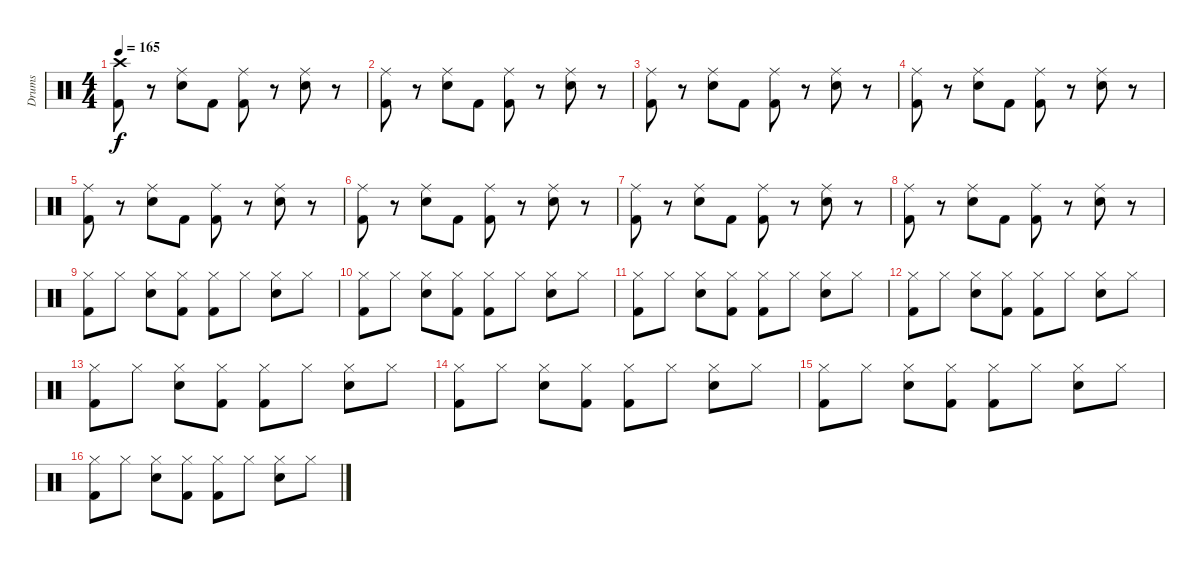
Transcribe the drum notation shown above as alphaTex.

\track ("Drums" "Drums") {instrument percussion}
\staff {score}
\articulation defaults
\ts (4 4)
\tempo 165
\clef neutral
\ks c
("Kick (hit) 2" "Crash high (hit)").8{dy f} r.8 ("Electric Snare (hit)" "Ride (middle)").8 "Kick (hit) 2".8 ("Kick (hit) 2" "Ride (middle)").8 r.8 ("Electric Snare (hit)" "Ride (middle)").8 r.8 |
("Kick (hit) 2" "Ride (middle)").8 r.8 ("Electric Snare (hit)" "Ride (middle)").8 "Kick (hit) 2".8 ("Ride (middle)" "Kick (hit) 2").8 r.8 ("Electric Snare (hit)" "Ride (middle)").8 r.8 |
("Kick (hit) 2" "Ride (middle)").8 r.8 ("Electric Snare (hit)" "Ride (middle)").8 "Kick (hit) 2".8 ("Ride (middle)" "Kick (hit) 2").8 r.8 ("Electric Snare (hit)" "Ride (middle)").8 r.8 |
("Kick (hit) 2" "Ride (middle)").8 r.8 ("Electric Snare (hit)" "Ride (middle)").8 "Kick (hit) 2".8 ("Ride (middle)" "Kick (hit) 2").8 r.8 ("Electric Snare (hit)" "Ride (middle)").8 r.8 |
("Kick (hit) 2" "Ride (middle)").8 r.8 ("Electric Snare (hit)" "Ride (middle)").8 "Kick (hit) 2".8 ("Ride (middle)" "Kick (hit) 2").8 r.8 ("Electric Snare (hit)" "Ride (middle)").8 r.8 |
("Kick (hit) 2" "Ride (middle)").8 r.8 ("Electric Snare (hit)" "Ride (middle)").8 "Kick (hit) 2".8 ("Ride (middle)" "Kick (hit) 2").8 r.8 ("Electric Snare (hit)" "Ride (middle)").8 r.8 |
("Kick (hit) 2" "Ride (middle)").8 r.8 ("Electric Snare (hit)" "Ride (middle)").8 "Kick (hit) 2".8 ("Ride (middle)" "Kick (hit) 2").8 r.8 ("Electric Snare (hit)" "Ride (middle)").8 r.8 |
("Kick (hit) 2" "Ride (middle)").8 r.8 ("Electric Snare (hit)" "Ride (middle)").8 "Kick (hit) 2".8 ("Ride (middle)" "Kick (hit) 2").8 r.8 ("Electric Snare (hit)" "Ride (middle)").8 r.8 |
("Kick (hit) 2" "Hi-Hat (closed)").8 "Hi-Hat (closed)".8 ("Electric Snare (hit)" "Hi-Hat (closed)").8 ("Kick (hit) 2" "Hi-Hat (closed)").8 ("Kick (hit) 2" "Hi-Hat (closed)").8 "Hi-Hat (closed)".8 ("Electric Snare (hit)" "Hi-Hat (closed)").8 "Hi-Hat (closed)".8 |
("Kick (hit) 2" "Hi-Hat (closed)").8 "Hi-Hat (closed)".8 ("Electric Snare (hit)" "Hi-Hat (closed)").8 ("Kick (hit) 2" "Hi-Hat (closed)").8 ("Kick (hit) 2" "Hi-Hat (closed)").8 "Hi-Hat (closed)".8 ("Electric Snare (hit)" "Hi-Hat (closed)").8 "Hi-Hat (closed)".8 |
("Kick (hit) 2" "Hi-Hat (closed)").8 "Hi-Hat (closed)".8 ("Electric Snare (hit)" "Hi-Hat (closed)").8 ("Kick (hit) 2" "Hi-Hat (closed)").8 ("Kick (hit) 2" "Hi-Hat (closed)").8 "Hi-Hat (closed)".8 ("Electric Snare (hit)" "Hi-Hat (closed)").8 "Hi-Hat (closed)".8 |
("Kick (hit) 2" "Hi-Hat (closed)").8 "Hi-Hat (closed)".8 ("Electric Snare (hit)" "Hi-Hat (closed)").8 ("Kick (hit) 2" "Hi-Hat (closed)").8 ("Kick (hit) 2" "Hi-Hat (closed)").8 "Hi-Hat (closed)".8 ("Electric Snare (hit)" "Hi-Hat (closed)").8 "Hi-Hat (closed)".8 |
("Kick (hit) 2" "Hi-Hat (closed)").8 "Hi-Hat (closed)".8 ("Electric Snare (hit)" "Hi-Hat (closed)").8 ("Kick (hit) 2" "Hi-Hat (closed)").8 ("Kick (hit) 2" "Hi-Hat (closed)").8 "Hi-Hat (closed)".8 ("Electric Snare (hit)" "Hi-Hat (closed)").8 "Hi-Hat (closed)".8 |
("Kick (hit) 2" "Hi-Hat (closed)").8 "Hi-Hat (closed)".8 ("Electric Snare (hit)" "Hi-Hat (closed)").8 ("Kick (hit) 2" "Hi-Hat (closed)").8 ("Kick (hit) 2" "Hi-Hat (closed)").8 "Hi-Hat (closed)".8 ("Electric Snare (hit)" "Hi-Hat (closed)").8 "Hi-Hat (closed)".8 |
("Kick (hit) 2" "Hi-Hat (closed)").8 "Hi-Hat (closed)".8 ("Electric Snare (hit)" "Hi-Hat (closed)").8 ("Kick (hit) 2" "Hi-Hat (closed)").8 ("Kick (hit) 2" "Hi-Hat (closed)").8 "Hi-Hat (closed)".8 ("Electric Snare (hit)" "Hi-Hat (closed)").8 "Hi-Hat (closed)".8 |
("Kick (hit) 2" "Hi-Hat (closed)").8 "Hi-Hat (closed)".8 ("Electric Snare (hit)" "Hi-Hat (closed)").8 ("Kick (hit) 2" "Hi-Hat (closed)").8 ("Kick (hit) 2" "Hi-Hat (closed)").8 "Hi-Hat (closed)".8 ("Electric Snare (hit)" "Hi-Hat (closed)").8 "Hi-Hat (closed)".8
